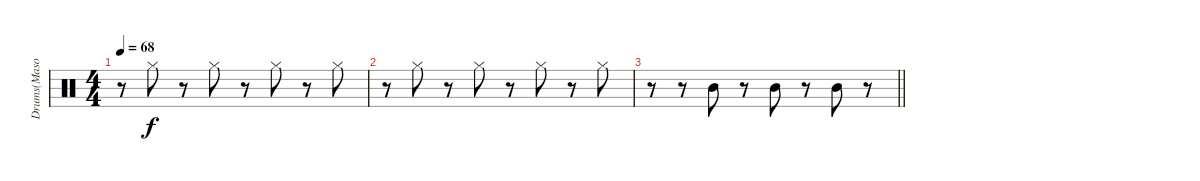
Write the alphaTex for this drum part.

\track ("Drums(Mason)" "Drums(Maso") {instrument percussion}
\staff {score}
\articulation defaults
\ts (4 4)
\tempo 68
\clef neutral
\ks c
r.8{dy f} "Hi-Hat (closed)".8 r.8 "Hi-Hat (closed)".8 r.8 "Hi-Hat (closed)".8 r.8 "Hi-Hat (closed)".8 |
r.8 "Hi-Hat (closed)".8 r.8 "Hi-Hat (closed)".8 r.8 "Hi-Hat (closed)".8 r.8 "Hi-Hat (closed)".8 |
\barLineRight lightlight
r.8 r.8 "Mid Tom (hit)".8 r.8 "Mid Tom (hit)".8 r.8 "Mid Tom (hit)".8 r.8
